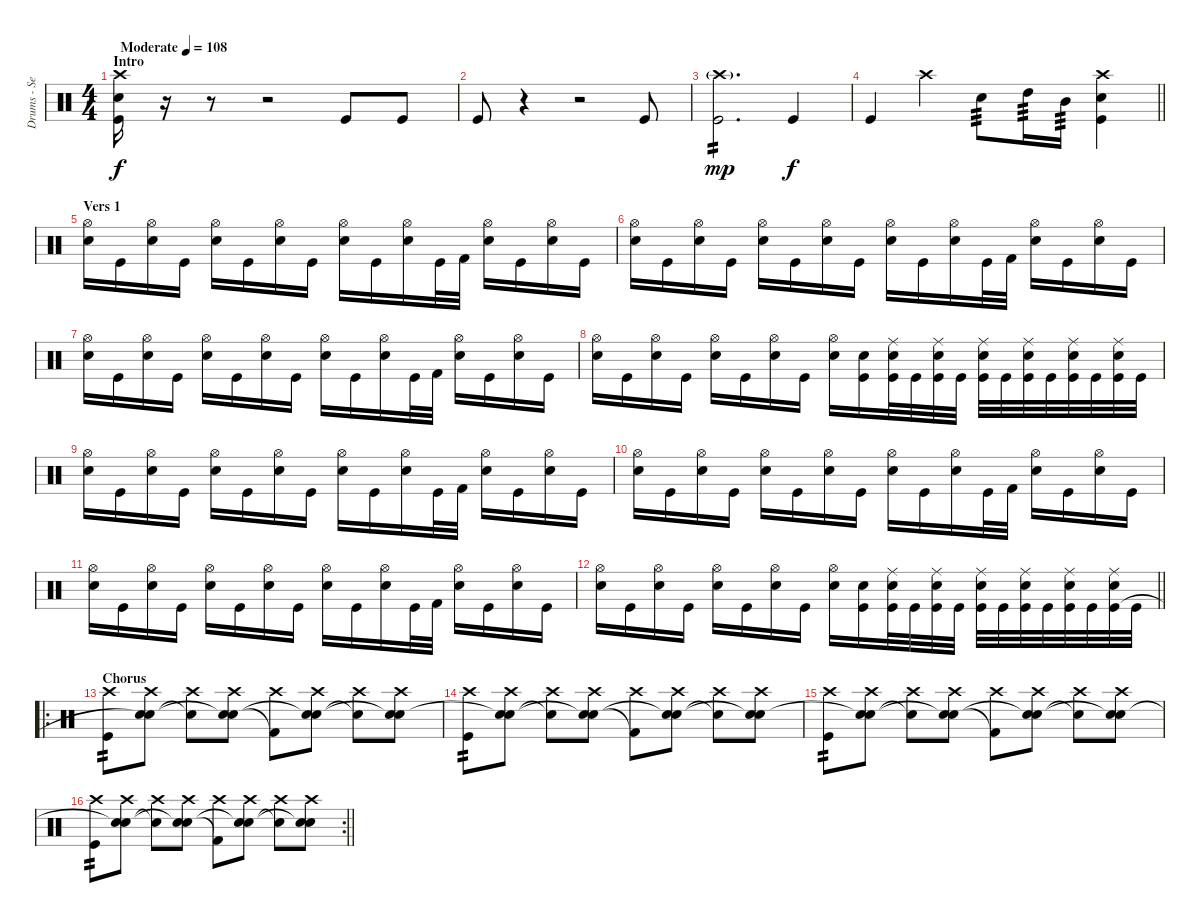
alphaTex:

\track ("Drums - Sebastian Heldt" "Drums - Se") {instrument percussion}
\staff {score}
\articulation defaults
\ts (4 4)
\section ("" "Intro")
\tempo (108 "Moderate")
\clef neutral
\ks c
("Crash high (hit)" "Electric Snare (hit)" "Kick (hit)").16{dy f} r.16 r.8 r.2 "Kick (hit)".8 "Kick (hit)".8 |
"Kick (hit)".8 r.4 r.2 "Kick (hit)".8 |
("Crash high (hit)"{g} "Kick (hit)").2{d tp 2 dy mp} "Kick (hit)".4{dy f} |
\barLineRight lightlight "Kick (hit)".4 "Crash high (hit)".4 "Electric Snare (hit)".8{tp 3} "High Tom (hit)".16{tp 3} "Mid Tom (hit)".16{tp 3}
("Crash high (hit)" "Electric Snare (hit)" "Kick (hit)").4 |
\section ("" "Vers 1")
("Hi-Hat (open)" "Electric Snare (hit)").16 "Kick (hit)".16 ("Hi-Hat (open)" "Electric Snare (hit)").16 "Kick (hit)".16 ("Hi-Hat (open)" "Electric Snare (hit)").16 "Kick (hit)".16 ("Hi-Hat (open)" "Electric Snare (hit)").16 "Kick (hit)".16 ("Hi-Hat (open)" "Electric Snare (hit)").16 "Kick (hit)".16 ("Hi-Hat (open)" "Electric Snare (hit)").16 "Kick (hit)".32 "Kick (hit) 2".32 ("Hi-Hat (open)" "Electric Snare (hit)").16 "Kick (hit)".16 ("Hi-Hat (open)" "Electric Snare (hit)").16 "Kick (hit)".16 |
("Hi-Hat (open)" "Electric Snare (hit)").16 "Kick (hit)".16 ("Hi-Hat (open)" "Electric Snare (hit)").16 "Kick (hit)".16 ("Hi-Hat (open)" "Electric Snare (hit)").16 "Kick (hit)".16 ("Hi-Hat (open)" "Electric Snare (hit)").16 "Kick (hit)".16 ("Hi-Hat (open)" "Electric Snare (hit)").16 "Kick (hit)".16 ("Hi-Hat (open)" "Electric Snare (hit)").16 "Kick (hit)".32 "Kick (hit) 2".32 ("Hi-Hat (open)" "Electric Snare (hit)").16 "Kick (hit)".16 ("Hi-Hat (open)" "Electric Snare (hit)").16 "Kick (hit)".16 |
("Hi-Hat (open)" "Electric Snare (hit)").16 "Kick (hit)".16 ("Hi-Hat (open)" "Electric Snare (hit)").16 "Kick (hit)".16 ("Hi-Hat (open)" "Electric Snare (hit)").16 "Kick (hit)".16 ("Hi-Hat (open)" "Electric Snare (hit)").16 "Kick (hit)".16 ("Hi-Hat (open)" "Electric Snare (hit)").16 "Kick (hit)".16 ("Hi-Hat (open)" "Electric Snare (hit)").16 "Kick (hit)".32 "Kick (hit) 2".32 ("Hi-Hat (open)" "Electric Snare (hit)").16 "Kick (hit)".16 ("Hi-Hat (open)" "Electric Snare (hit)").16 "Kick (hit)".16 |
("Hi-Hat (open)" "Electric Snare (hit)").16 "Kick (hit)".16 ("Hi-Hat (open)" "Electric Snare (hit)").16 "Kick (hit)".16 ("Hi-Hat (open)" "Electric Snare (hit)").16 "Kick (hit)".16 ("Hi-Hat (open)" "Electric Snare (hit)").16 "Kick (hit)".16 ("Hi-Hat (open)" "Electric Snare (hit)").16 ("Electric Snare (hit)" "Kick (hit)").16 ("Ride (middle)" "Electric Snare (hit)" "Kick (hit)").32 "Kick (hit)".32 ("Ride (middle)" "Electric Snare (hit)" "Kick (hit)").32 "Kick (hit)".32 ("Ride (middle)" "Electric Snare (hit)" "Kick (hit)").32 "Kick (hit)".32 ("Ride (middle)" "Electric Snare (hit)" "Kick (hit)").32 "Kick (hit)".32 ("Ride (middle)" "Electric Snare (hit)" "Kick (hit)").32 "Kick (hit)".32 ("Ride (middle)" "Electric Snare (hit)" "Kick (hit)").32 "Kick (hit)".32 |
("Hi-Hat (open)" "Electric Snare (hit)").16 "Kick (hit)".16 ("Hi-Hat (open)" "Electric Snare (hit)").16 "Kick (hit)".16 ("Hi-Hat (open)" "Electric Snare (hit)").16 "Kick (hit)".16 ("Hi-Hat (open)" "Electric Snare (hit)").16 "Kick (hit)".16 ("Hi-Hat (open)" "Electric Snare (hit)").16 "Kick (hit)".16 ("Hi-Hat (open)" "Electric Snare (hit)").16 "Kick (hit)".32 "Kick (hit) 2".32 ("Hi-Hat (open)" "Electric Snare (hit)").16 "Kick (hit)".16 ("Hi-Hat (open)" "Electric Snare (hit)").16 "Kick (hit)".16 |
("Hi-Hat (open)" "Electric Snare (hit)").16 "Kick (hit)".16 ("Hi-Hat (open)" "Electric Snare (hit)").16 "Kick (hit)".16 ("Hi-Hat (open)" "Electric Snare (hit)").16 "Kick (hit)".16 ("Hi-Hat (open)" "Electric Snare (hit)").16 "Kick (hit)".16 ("Hi-Hat (open)" "Electric Snare (hit)").16 "Kick (hit)".16 ("Hi-Hat (open)" "Electric Snare (hit)").16 "Kick (hit)".32 "Kick (hit) 2".32 ("Hi-Hat (open)" "Electric Snare (hit)").16 "Kick (hit)".16 ("Hi-Hat (open)" "Electric Snare (hit)").16 "Kick (hit)".16 |
("Hi-Hat (open)" "Electric Snare (hit)").16 "Kick (hit)".16 ("Hi-Hat (open)" "Electric Snare (hit)").16 "Kick (hit)".16 ("Hi-Hat (open)" "Electric Snare (hit)").16 "Kick (hit)".16 ("Hi-Hat (open)" "Electric Snare (hit)").16 "Kick (hit)".16 ("Hi-Hat (open)" "Electric Snare (hit)").16 "Kick (hit)".16 ("Hi-Hat (open)" "Electric Snare (hit)").16 "Kick (hit)".32 "Kick (hit) 2".32 ("Hi-Hat (open)" "Electric Snare (hit)").16 "Kick (hit)".16 ("Hi-Hat (open)" "Electric Snare (hit)").16 "Kick (hit)".16 |
\barLineRight lightlight
("Hi-Hat (open)" "Electric Snare (hit)").16 "Kick (hit)".16 ("Hi-Hat (open)" "Electric Snare (hit)").16 "Kick (hit)".16 ("Hi-Hat (open)" "Electric Snare (hit)").16 "Kick (hit)".16 ("Hi-Hat (open)" "Electric Snare (hit)").16 "Kick (hit)".16 ("Hi-Hat (open)" "Electric Snare (hit)").16 ("Electric Snare (hit)" "Kick (hit)").16 ("Ride (middle)" "Electric Snare (hit)" "Kick (hit)").32 "Kick (hit)".32 ("Ride (middle)" "Electric Snare (hit)" "Kick (hit)").32 "Kick (hit)".32 ("Ride (middle)" "Electric Snare (hit)" "Kick (hit)").32 "Kick (hit)".32 ("Ride (middle)" "Electric Snare (hit)" "Kick (hit)").32 "Kick (hit)".32 ("Ride (middle)" "Electric Snare (hit)" "Kick (hit)").32 "Kick (hit)".32 ("Ride (middle)" "Electric Snare (hit)" "Kick (hit)").32 "Kick (hit)".32 |
\ro
\section ("" "Chorus")
("Crash high (hit)" "Kick (hit)").8{tp 2} ("Crash high (hit)" "Electric Snare (hit)" "Snare (hit)"{t}).8 ("Crash high (hit)" "Snare (hit)"{t}).8 ("Crash high (hit)" "Electric Snare (hit)" "Snare (hit)"{t}).8 ("Crash high (hit)" "Kick (hit) 2"{t}).8 ("Crash high (hit)" "Electric Snare (hit)" "Snare (hit)"{t}).8 ("Crash high (hit)" "Snare (hit)"{t}).8 ("Crash high (hit)" "Electric Snare (hit)" "Snare (hit)"{t}).8 |
("Crash high (hit)" "Kick (hit)").8{tp 2} ("Crash high (hit)" "Electric Snare (hit)" "Snare (hit)"{t}).8 ("Crash high (hit)" "Snare (hit)"{t}).8 ("Crash high (hit)" "Electric Snare (hit)" "Snare (hit)"{t}).8 ("Crash high (hit)" "Kick (hit) 2"{t}).8 ("Crash high (hit)" "Electric Snare (hit)" "Snare (hit)"{t}).8 ("Crash high (hit)" "Snare (hit)"{t}).8 ("Crash high (hit)" "Electric Snare (hit)" "Snare (hit)"{t}).8 |
("Crash high (hit)" "Kick (hit)").8{tp 2} ("Crash high (hit)" "Electric Snare (hit)" "Snare (hit)"{t}).8 ("Crash high (hit)" "Snare (hit)"{t}).8 ("Crash high (hit)" "Electric Snare (hit)" "Snare (hit)"{t}).8 ("Crash high (hit)" "Kick (hit) 2"{t}).8 ("Crash high (hit)" "Electric Snare (hit)" "Snare (hit)"{t}).8 ("Crash high (hit)" "Snare (hit)"{t}).8 ("Crash high (hit)" "Electric Snare (hit)" "Snare (hit)"{t}).8 |
\rc 2
\barLineRight lightlight
("Crash high (hit)" "Kick (hit)").8{tp 2} ("Crash high (hit)" "Electric Snare (hit)" "Snare (hit)"{t}).8 ("Crash high (hit)" "Snare (hit)"{t}).8 ("Crash high (hit)" "Electric Snare (hit)" "Snare (hit)"{t}).8 ("Crash high (hit)" "Kick (hit) 2"{t}).8 ("Crash high (hit)" "Electric Snare (hit)" "Snare (hit)"{t}).8 ("Crash high (hit)" "Snare (hit)"{t}).8 ("Crash high (hit)" "Electric Snare (hit)" "Snare (hit)"{t}).8
